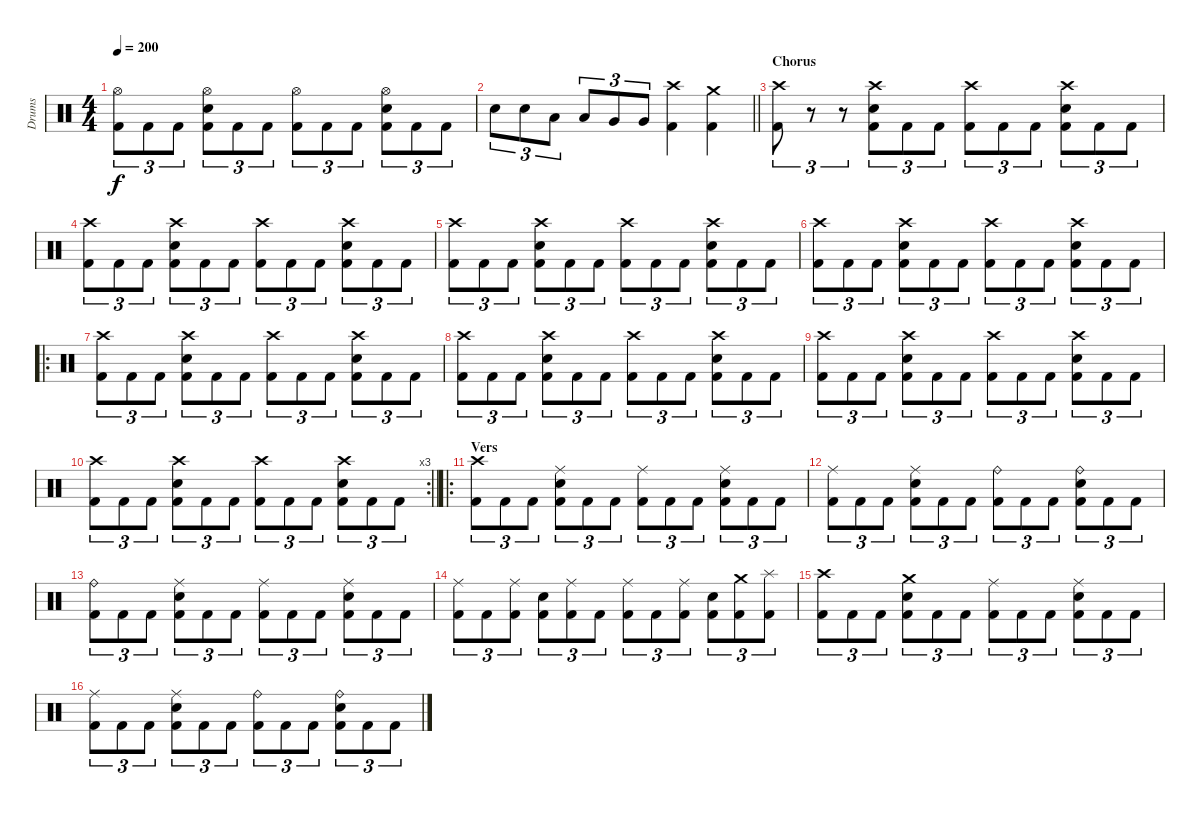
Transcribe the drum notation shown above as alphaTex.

\track ("Drums" "Drums") {instrument percussion}
\staff {score}
\articulation defaults
\ts (4 4)
\tempo 200
\clef neutral
\ks c
("Hi-Hat (open)" "Kick (hit) 2").8{tu (3 2) dy f} "Kick (hit) 2".8{tu (3 2)} "Kick (hit) 2".8{tu (3 2)} ("Hi-Hat (open)" "Electric Snare (hit)" "Kick (hit) 2").8{tu (3 2)} "Kick (hit) 2".8{tu (3 2)} "Kick (hit) 2".8{tu (3 2)} ("Hi-Hat (open)" "Kick (hit) 2").8{tu (3 2)} "Kick (hit) 2".8{tu (3 2)} "Kick (hit) 2".8{tu (3 2)} ("Hi-Hat (open)" "Electric Snare (hit)" "Kick (hit) 2").8{tu (3 2)} "Kick (hit) 2".8{tu (3 2)} "Kick (hit) 2".8{tu (3 2)} |
\barLineRight lightlight "Electric Snare (hit)".8{tu (3 2)} "Electric Snare (hit)".8{tu (3 2)} "Low Tom (hit)".8{tu (3 2)} "Low Tom (hit)".8{tu (3 2)} "Very Low Tom (hit)".8{tu (3 2)} "Very Low Tom (hit)".8{tu (3 2)}
("Crash high (hit)" "Kick (hit) 2").4 ("Crash medium (hit)" "Kick (hit) 2").4 |
\section ("" "Chorus")
("Crash high (hit)" "Kick (hit) 2").8{tu (3 2)} r.8{tu (3 2)} r.8{tu (3 2)} ("Crash high (hit)" "Electric Snare (hit)" "Kick (hit) 2").8{tu (3 2)} "Kick (hit) 2".8{tu (3 2)} "Kick (hit) 2".8{tu (3 2)} ("Crash high (hit)" "Kick (hit) 2").8{tu (3 2)} "Kick (hit) 2".8{tu (3 2)} "Kick (hit) 2".8{tu (3 2)} ("Crash high (hit)" "Electric Snare (hit)" "Kick (hit) 2").8{tu (3 2)} "Kick (hit) 2".8{tu (3 2)} "Kick (hit) 2".8{tu (3 2)} |
("Crash high (hit)" "Kick (hit) 2").8{tu (3 2)} "Kick (hit) 2".8{tu (3 2)} "Kick (hit) 2".8{tu (3 2)} ("Crash high (hit)" "Electric Snare (hit)" "Kick (hit) 2").8{tu (3 2)} "Kick (hit) 2".8{tu (3 2)} "Kick (hit) 2".8{tu (3 2)} ("Crash high (hit)" "Kick (hit) 2").8{tu (3 2)} "Kick (hit) 2".8{tu (3 2)} "Kick (hit) 2".8{tu (3 2)} ("Crash high (hit)" "Electric Snare (hit)" "Kick (hit) 2").8{tu (3 2)} "Kick (hit) 2".8{tu (3 2)} "Kick (hit) 2".8{tu (3 2)} |
("Crash high (hit)" "Kick (hit) 2").8{tu (3 2)} "Kick (hit) 2".8{tu (3 2)} "Kick (hit) 2".8{tu (3 2)} ("Crash high (hit)" "Electric Snare (hit)" "Kick (hit) 2").8{tu (3 2)} "Kick (hit) 2".8{tu (3 2)} "Kick (hit) 2".8{tu (3 2)} ("Crash high (hit)" "Kick (hit) 2").8{tu (3 2)} "Kick (hit) 2".8{tu (3 2)} "Kick (hit) 2".8{tu (3 2)} ("Crash high (hit)" "Electric Snare (hit)" "Kick (hit) 2").8{tu (3 2)} "Kick (hit) 2".8{tu (3 2)} "Kick (hit) 2".8{tu (3 2)} |
("Crash high (hit)" "Kick (hit) 2").8{tu (3 2)} "Kick (hit) 2".8{tu (3 2)} "Kick (hit) 2".8{tu (3 2)} ("Crash high (hit)" "Electric Snare (hit)" "Kick (hit) 2").8{tu (3 2)} "Kick (hit) 2".8{tu (3 2)} "Kick (hit) 2".8{tu (3 2)} ("Crash high (hit)" "Kick (hit) 2").8{tu (3 2)} "Kick (hit) 2".8{tu (3 2)} "Kick (hit) 2".8{tu (3 2)} ("Crash high (hit)" "Electric Snare (hit)" "Kick (hit) 2").8{tu (3 2)} "Kick (hit) 2".8{tu (3 2)} "Kick (hit) 2".8{tu (3 2)} |
\ro
("Crash high (hit)" "Kick (hit) 2").8{tu (3 2)} "Kick (hit) 2".8{tu (3 2)} "Kick (hit) 2".8{tu (3 2)} ("Crash high (hit)" "Electric Snare (hit)" "Kick (hit) 2").8{tu (3 2)} "Kick (hit) 2".8{tu (3 2)} "Kick (hit) 2".8{tu (3 2)} ("Crash high (hit)" "Kick (hit) 2").8{tu (3 2)} "Kick (hit) 2".8{tu (3 2)} "Kick (hit) 2".8{tu (3 2)} ("Crash high (hit)" "Electric Snare (hit)" "Kick (hit) 2").8{tu (3 2)} "Kick (hit) 2".8{tu (3 2)} "Kick (hit) 2".8{tu (3 2)} |
("Crash high (hit)" "Kick (hit) 2").8{tu (3 2)} "Kick (hit) 2".8{tu (3 2)} "Kick (hit) 2".8{tu (3 2)} ("Crash high (hit)" "Electric Snare (hit)" "Kick (hit) 2").8{tu (3 2)} "Kick (hit) 2".8{tu (3 2)} "Kick (hit) 2".8{tu (3 2)} ("Crash high (hit)" "Kick (hit) 2").8{tu (3 2)} "Kick (hit) 2".8{tu (3 2)} "Kick (hit) 2".8{tu (3 2)} ("Crash high (hit)" "Electric Snare (hit)" "Kick (hit) 2").8{tu (3 2)} "Kick (hit) 2".8{tu (3 2)} "Kick (hit) 2".8{tu (3 2)} |
("Crash high (hit)" "Kick (hit) 2").8{tu (3 2)} "Kick (hit) 2".8{tu (3 2)} "Kick (hit) 2".8{tu (3 2)} ("Crash high (hit)" "Electric Snare (hit)" "Kick (hit) 2").8{tu (3 2)} "Kick (hit) 2".8{tu (3 2)} "Kick (hit) 2".8{tu (3 2)} ("Crash high (hit)" "Kick (hit) 2").8{tu (3 2)} "Kick (hit) 2".8{tu (3 2)} "Kick (hit) 2".8{tu (3 2)} ("Crash high (hit)" "Electric Snare (hit)" "Kick (hit) 2").8{tu (3 2)} "Kick (hit) 2".8{tu (3 2)} "Kick (hit) 2".8{tu (3 2)} |
\rc 3
\barLineRight lightlight
("Crash high (hit)" "Kick (hit) 2").8{tu (3 2)} "Kick (hit) 2".8{tu (3 2)} "Kick (hit) 2".8{tu (3 2)} ("Crash high (hit)" "Electric Snare (hit)" "Kick (hit) 2").8{tu (3 2)} "Kick (hit) 2".8{tu (3 2)} "Kick (hit) 2".8{tu (3 2)} ("Crash high (hit)" "Kick (hit) 2").8{tu (3 2)} "Kick (hit) 2".8{tu (3 2)} "Kick (hit) 2".8{tu (3 2)} ("Crash high (hit)" "Electric Snare (hit)" "Kick (hit) 2").8{tu (3 2)} "Kick (hit) 2".8{tu (3 2)} "Kick (hit) 2".8{tu (3 2)} |
\ro
\section ("" "Vers")
("Crash high (hit)" "Kick (hit) 2").8{tu (3 2)} "Kick (hit) 2".8{tu (3 2)} "Kick (hit) 2".8{tu (3 2)} ("Ride (middle)" "Electric Snare (hit)" "Kick (hit) 2").8{tu (3 2)} "Kick (hit) 2".8{tu (3 2)} "Kick (hit) 2".8{tu (3 2)} ("Ride (middle)" "Kick (hit) 2").8{tu (3 2)} "Kick (hit) 2".8{tu (3 2)} "Kick (hit) 2".8{tu (3 2)} ("Ride (middle)" "Electric Snare (hit)" "Kick (hit) 2").8{tu (3 2)} "Kick (hit) 2".8{tu (3 2)} "Kick (hit) 2".8{tu (3 2)} |
("Ride (middle)" "Kick (hit) 2").8{tu (3 2)} "Kick (hit) 2".8{tu (3 2)} "Kick (hit) 2".8{tu (3 2)} ("Ride (middle)" "Electric Snare (hit)" "Kick (hit) 2").8{tu (3 2)} "Kick (hit) 2".8{tu (3 2)} "Kick (hit) 2".8{tu (3 2)} ("Ride (bell)" "Kick (hit) 2").8{tu (3 2)} "Kick (hit) 2".8{tu (3 2)} "Kick (hit) 2".8{tu (3 2)} ("Ride (bell)" "Electric Snare (hit)" "Kick (hit) 2").8{tu (3 2)} "Kick (hit) 2".8{tu (3 2)} "Kick (hit) 2".8{tu (3 2)} |
("Ride (bell)" "Kick (hit) 2").8{tu (3 2)} "Kick (hit) 2".8{tu (3 2)} "Kick (hit) 2".8{tu (3 2)} ("Ride (middle)" "Electric Snare (hit)" "Kick (hit) 2").8{tu (3 2)} "Kick (hit) 2".8{tu (3 2)} "Kick (hit) 2".8{tu (3 2)} ("Ride (middle)" "Kick (hit) 2").8{tu (3 2)} "Kick (hit) 2".8{tu (3 2)} "Kick (hit) 2".8{tu (3 2)} ("Ride (middle)" "Electric Snare (hit)" "Kick (hit) 2").8{tu (3 2)} "Kick (hit) 2".8{tu (3 2)} "Kick (hit) 2".8{tu (3 2)} |
("Ride (middle)" "Kick (hit) 2").8{tu (3 2)} "Kick (hit) 2".8{tu (3 2)} ("Ride (middle)" "Kick (hit) 2").8{tu (3 2)} ("Electric Snare (hit)" "Kick (hit) 2").8{tu (3 2)} ("Ride (middle)" "Kick (hit) 2").8{tu (3 2)} "Kick (hit) 2".8{tu (3 2)} ("Ride (middle)" "Kick (hit) 2").8{tu (3 2)} "Kick (hit) 2".8{tu (3 2)} ("Ride (middle)" "Kick (hit) 2").8{tu (3 2)} ("Electric Snare (hit)" "Kick (hit) 2").8{tu (3 2)} ("Crash medium (hit)" "Kick (hit) 2").8{tu (3 2)} ("Splash (hit)" "Kick (hit) 2").8{tu (3 2)} |
("Crash high (hit)" "Kick (hit) 2").8{tu (3 2)} "Kick (hit) 2".8{tu (3 2)} "Kick (hit) 2".8{tu (3 2)} ("Crash medium (hit)" "Electric Snare (hit)" "Kick (hit) 2").8{tu (3 2)} "Kick (hit) 2".8{tu (3 2)} "Kick (hit) 2".8{tu (3 2)} ("Ride (middle)" "Kick (hit) 2").8{tu (3 2)} "Kick (hit) 2".8{tu (3 2)} "Kick (hit) 2".8{tu (3 2)} ("Ride (middle)" "Electric Snare (hit)" "Kick (hit) 2").8{tu (3 2)} "Kick (hit) 2".8{tu (3 2)} "Kick (hit) 2".8{tu (3 2)} |
("Ride (middle)" "Kick (hit) 2").8{tu (3 2)} "Kick (hit) 2".8{tu (3 2)} "Kick (hit) 2".8{tu (3 2)} ("Ride (middle)" "Electric Snare (hit)" "Kick (hit) 2").8{tu (3 2)} "Kick (hit) 2".8{tu (3 2)} "Kick (hit) 2".8{tu (3 2)} ("Ride (bell)" "Kick (hit) 2").8{tu (3 2)} "Kick (hit) 2".8{tu (3 2)} "Kick (hit) 2".8{tu (3 2)} ("Ride (bell)" "Electric Snare (hit)" "Kick (hit) 2").8{tu (3 2)} "Kick (hit) 2".8{tu (3 2)} "Kick (hit) 2".8{tu (3 2)}
